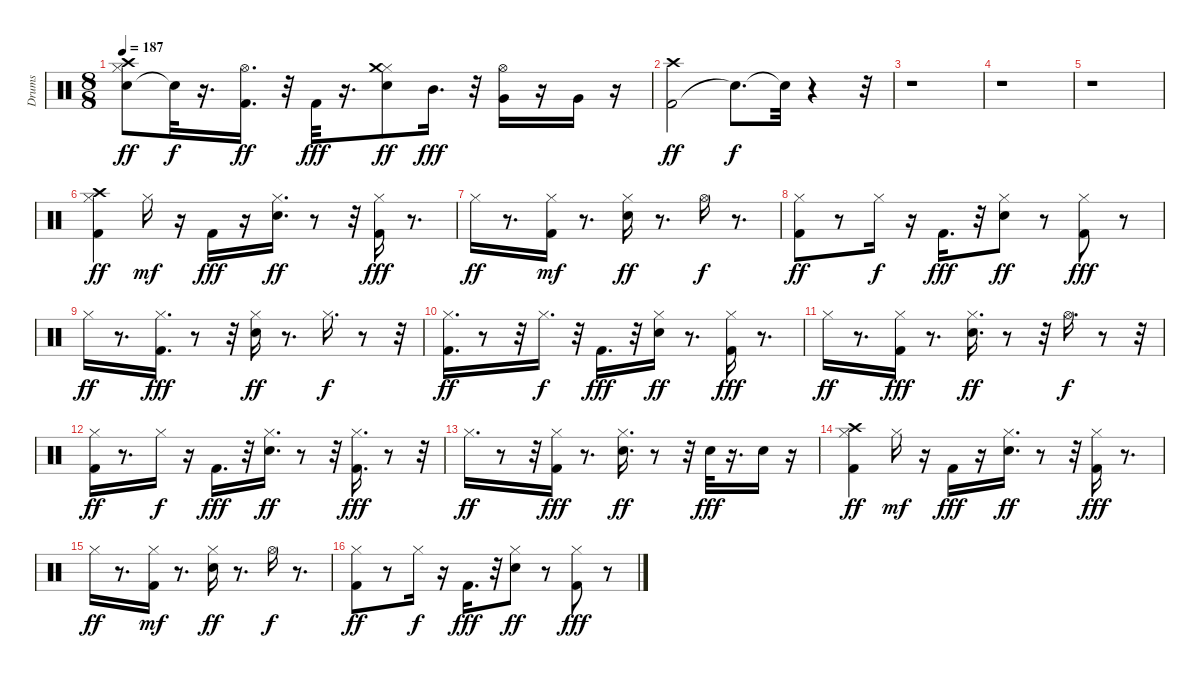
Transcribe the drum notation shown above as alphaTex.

\track ("Drums" "Drums") {instrument percussion}
\staff {score}
\articulation defaults
\ts (8 8)
\tempo 187
\clef neutral
\ks c
("Snare (hit) 2" "Hi-Hat (closed)" "Crash high (hit)").8{dy ff} "Snare (hit)"{t}.32{dy f} r.16{d} ("Kick (hit) 2" "Hi-Hat (open)").16{d dy ff} r.32 "Kick (hit) 2".32{dy fff} r.16{d} ("Snare (hit) 2" "Hi-Hat (closed)" "Crash medium (hit)").8{dy ff} "Mid Tom (hit)".16{d dy fff} r.32 ("Hi-Hat (open)" "Very Low Tom (hit)").16 r.16 "Very Low Tom (hit)".16 r.16 |
("Kick (hit) 2" "Crash high (hit)").2{dy ff} "Snare (hit)"{t}.8{d dy f} "Snare (hit)"{t}.32 r.4 r.32 |
r.1 |
r.1 |
r.1 |
("Kick (hit) 2" "Hi-Hat (closed)" "Crash high (hit)").4{dy ff} "Hi-Hat (closed)".16{dy mf} r.16 "Kick (hit) 2".16{dy fff} r.16 ("Snare (hit) 2" "Hi-Hat (closed)").16{d dy ff} r.8 r.32 ("Kick (hit) 2" "Hi-Hat (closed)").16{dy fff} r.8{d} |
"Hi-Hat (closed)".16{dy ff} r.8{d} ("Kick (hit) 2" "Hi-Hat (closed)").16{dy mf} r.8{d} ("Snare (hit) 2" "Hi-Hat (closed)").16{dy ff} r.8{d} "Hi-Hat (open)".16{dy f} r.8{d} |
("Kick (hit) 2" "Hi-Hat (closed)").8{dy ff} r.8 "Hi-Hat (closed)".16{dy f} r.16 "Kick (hit) 2".16{d dy fff} r.32 ("Snare (hit) 2" "Hi-Hat (closed)").8{dy ff} r.8 ("Kick (hit) 2" "Hi-Hat (closed)").8{dy fff} r.8 |
"Hi-Hat (closed)".16{dy ff} r.8{d} ("Kick (hit) 2" "Hi-Hat (closed)").16{d dy fff} r.8 r.32 ("Snare (hit) 2" "Hi-Hat (closed)").16{dy ff} r.8{d} "Hi-Hat (closed)".16{d dy f} r.8 r.32 |
("Kick (hit) 2" "Hi-Hat (closed)").16{d dy ff} r.8 r.32 "Hi-Hat (closed)".16{d dy f} r.32 "Kick (hit) 2".16{d dy fff} r.32 ("Snare (hit) 2" "Hi-Hat (closed)").16{dy ff} r.8{d} ("Kick (hit) 2" "Hi-Hat (closed)").16{dy fff} r.8{d} |
"Hi-Hat (closed)".16{dy ff} r.8{d} ("Kick (hit) 2" "Hi-Hat (closed)").16{dy fff} r.8{d} ("Snare (hit) 2" "Hi-Hat (closed)").16{d dy ff} r.8 r.32 "Hi-Hat (open)".16{d dy f} r.8 r.32 |
("Kick (hit) 2" "Hi-Hat (closed)").16{dy ff} r.8{d} "Hi-Hat (closed)".16{dy f} r.16 "Kick (hit) 2".16{d dy fff} r.32 ("Snare (hit) 2" "Hi-Hat (closed)").16{d dy ff} r.8 r.32 ("Kick (hit) 2" "Hi-Hat (closed)").16{d dy fff} r.8 r.32 |
"Hi-Hat (closed)".16{d dy ff} r.8 r.32 ("Kick (hit) 2" "Hi-Hat (closed)").16{dy fff} r.8{d} ("Snare (hit) 2" "Hi-Hat (closed)").16{d dy ff} r.8 r.32 "Snare (hit) 2".32{dy fff} r.16{d} "Snare (hit) 2".16 r.16 |
("Kick (hit) 2" "Hi-Hat (closed)" "Crash high (hit)").4{dy ff} "Hi-Hat (closed)".16{dy mf} r.16 "Kick (hit) 2".16{dy fff} r.16 ("Snare (hit) 2" "Hi-Hat (closed)").16{d dy ff} r.8 r.32 ("Kick (hit) 2" "Hi-Hat (closed)").16{dy fff} r.8{d} |
"Hi-Hat (closed)".16{dy ff} r.8{d} ("Kick (hit) 2" "Hi-Hat (closed)").16{dy mf} r.8{d} ("Snare (hit) 2" "Hi-Hat (closed)").16{dy ff} r.8{d} "Hi-Hat (open)".16{dy f} r.8{d} |
("Kick (hit) 2" "Hi-Hat (closed)").8{dy ff} r.8 "Hi-Hat (closed)".16{dy f} r.16 "Kick (hit) 2".16{d dy fff} r.32 ("Snare (hit) 2" "Hi-Hat (closed)").8{dy ff} r.8 ("Kick (hit) 2" "Hi-Hat (closed)").8{dy fff} r.8
